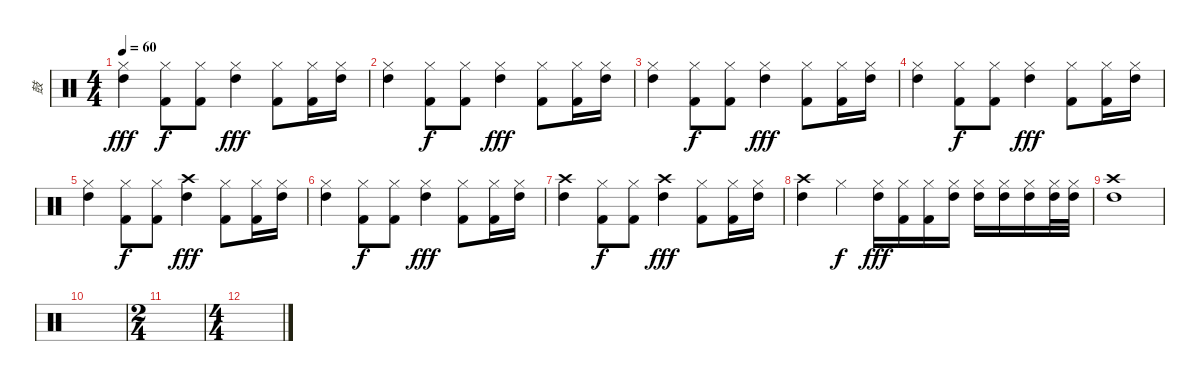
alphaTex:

\track ("鼓" "鼓") {instrument percussion}
\staff {score}
\articulation defaults
\ts (4 4)
\tempo 60
\clef neutral
\ks c
("Hi-Hat (closed)" "High Tom (hit)").4{dy fff} ("Hi-Hat (closed)" "Kick (hit) 2").8{dy f} ("Hi-Hat (closed)" "Kick (hit) 2").8 ("Hi-Hat (closed)" "High Tom (hit)").4{dy fff} ("Hi-Hat (closed)" "Kick (hit) 2").8 ("Hi-Hat (closed)" "Kick (hit) 2").16 ("Hi-Hat (closed)" "High Tom (hit)").16 |
("Hi-Hat (closed)" "High Tom (hit)").4 ("Hi-Hat (closed)" "Kick (hit) 2").8{dy f} ("Hi-Hat (closed)" "Kick (hit) 2").8 ("Hi-Hat (closed)" "High Tom (hit)").4{dy fff} ("Hi-Hat (closed)" "Kick (hit) 2").8 ("Hi-Hat (closed)" "Kick (hit) 2").16 ("Hi-Hat (closed)" "High Tom (hit)").16 |
("Hi-Hat (closed)" "High Tom (hit)").4 ("Hi-Hat (closed)" "Kick (hit) 2").8{dy f} ("Hi-Hat (closed)" "Kick (hit) 2").8 ("Hi-Hat (closed)" "High Tom (hit)").4{dy fff} ("Hi-Hat (closed)" "Kick (hit) 2").8 ("Hi-Hat (closed)" "Kick (hit) 2").16 ("Hi-Hat (closed)" "High Tom (hit)").16 |
("Hi-Hat (closed)" "High Tom (hit)").4 ("Hi-Hat (closed)" "Kick (hit) 2").8{dy f} ("Hi-Hat (closed)" "Kick (hit) 2").8 ("Hi-Hat (closed)" "High Tom (hit)").4{dy fff} ("Hi-Hat (closed)" "Kick (hit) 2").8 ("Hi-Hat (closed)" "Kick (hit) 2").16 ("Hi-Hat (closed)" "High Tom (hit)").16 |
("Hi-Hat (closed)" "High Tom (hit)").4 ("Hi-Hat (closed)" "Kick (hit) 2").8{dy f} ("Hi-Hat (closed)" "Kick (hit) 2").8 ("Crash high (hit)" "High Tom (hit)").4{dy fff} ("Hi-Hat (closed)" "Kick (hit) 2").8 ("Hi-Hat (closed)" "Kick (hit) 2").16 ("Hi-Hat (closed)" "High Tom (hit)").16 |
("Hi-Hat (closed)" "High Tom (hit)").4 ("Hi-Hat (closed)" "Kick (hit) 2").8{dy f} ("Hi-Hat (closed)" "Kick (hit) 2").8 ("Hi-Hat (closed)" "High Tom (hit)").4{dy fff} ("Hi-Hat (closed)" "Kick (hit) 2").8 ("Hi-Hat (closed)" "Kick (hit) 2").16 ("Hi-Hat (closed)" "High Tom (hit)").16 |
("Crash high (hit)" "High Tom (hit)").4 ("Hi-Hat (closed)" "Kick (hit) 2").8{dy f} ("Hi-Hat (closed)" "Kick (hit) 2").8 ("Crash high (hit)" "High Tom (hit)").4{dy fff} ("Hi-Hat (closed)" "Kick (hit) 2").8 ("Hi-Hat (closed)" "Kick (hit) 2").16 ("Hi-Hat (closed)" "High Tom (hit)").16 |
("Crash high (hit)" "High Tom (hit)").4 "Hi-Hat (closed)".4{dy f} ("Hi-Hat (closed)" "High Tom (hit)").16{dy fff} ("Hi-Hat (closed)" "Kick (hit) 2").16 ("Hi-Hat (closed)" "Kick (hit) 2").16 ("Hi-Hat (closed)" "High Tom (hit)").16 ("Hi-Hat (closed)" "High Tom (hit)").16 ("Hi-Hat (closed)" "High Tom (hit)").16 ("Hi-Hat (closed)" "High Tom (hit)").16 ("Hi-Hat (closed)" "High Tom (hit)").32 ("Hi-Hat (closed)" "High Tom (hit)").32 |
("Crash high (hit)" "High Tom (hit)").1 |
|
\ts (2 4)
|
\ts (4 4)
